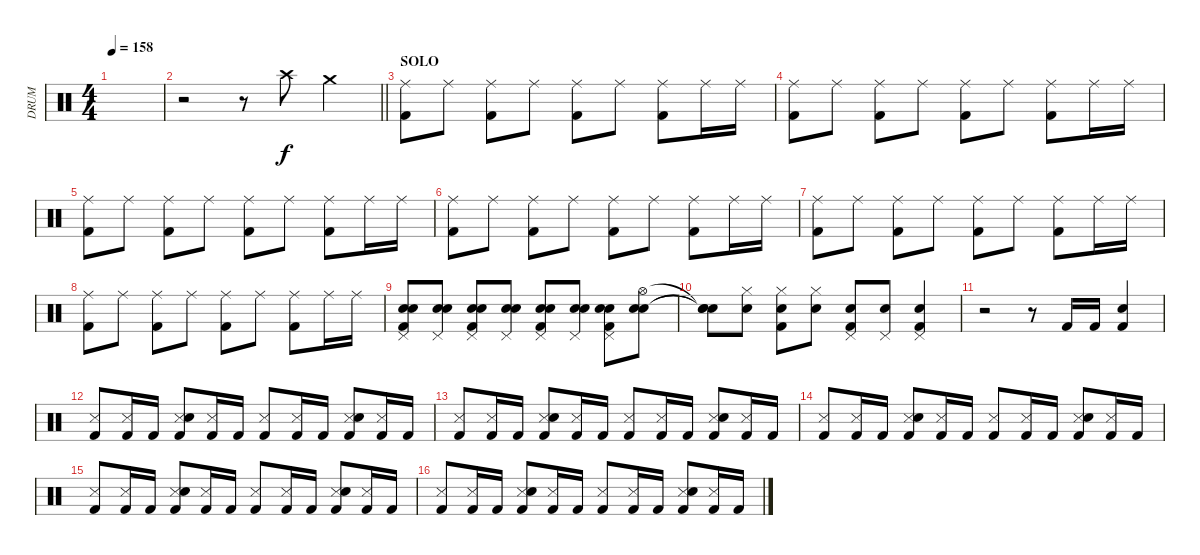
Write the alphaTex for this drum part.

\track ("DRUM" "DRUM") {instrument percussion}
\staff {score}
\articulation defaults
\ts (4 4)
\tempo 158
\clef neutral
\ks c
|
\barLineRight lightlight
r.2 r.8 "Crash high (hit)".8 "Crash medium (hit)".4 |
\section ("" "SOLO")
("Ride (middle)" "Kick (hit) 2").8 "Ride (middle)".8 ("Ride (middle)" "Kick (hit) 2").8 "Ride (middle)".8 ("Ride (middle)" "Kick (hit) 2").8 "Ride (middle)".8 ("Ride (middle)" "Kick (hit) 2").8 "Ride (middle)".16 "Ride (middle)".16 |
("Ride (middle)" "Kick (hit) 2").8 "Ride (middle)".8 ("Ride (middle)" "Kick (hit) 2").8 "Ride (middle)".8 ("Ride (middle)" "Kick (hit) 2").8 "Ride (middle)".8 ("Ride (middle)" "Kick (hit) 2").8 "Ride (middle)".16 "Ride (middle)".16 |
("Ride (middle)" "Kick (hit) 2").8 "Ride (middle)".8 ("Ride (middle)" "Kick (hit) 2").8 "Ride (middle)".8 ("Ride (middle)" "Kick (hit) 2").8 "Ride (middle)".8 ("Ride (middle)" "Kick (hit) 2").8 "Ride (middle)".16 "Ride (middle)".16 |
("Ride (middle)" "Kick (hit) 2").8 "Ride (middle)".8 ("Ride (middle)" "Kick (hit) 2").8 "Ride (middle)".8 ("Ride (middle)" "Kick (hit) 2").8 "Ride (middle)".8 ("Ride (middle)" "Kick (hit) 2").8 "Ride (middle)".16 "Ride (middle)".16 |
("Ride (middle)" "Kick (hit) 2").8 "Ride (middle)".8 ("Ride (middle)" "Kick (hit) 2").8 "Ride (middle)".8 ("Ride (middle)" "Kick (hit) 2").8 "Ride (middle)".8 ("Ride (middle)" "Kick (hit) 2").8 "Ride (middle)".16 "Ride (middle)".16 |
("Ride (middle)" "Kick (hit) 2").8 "Ride (middle)".8 ("Ride (middle)" "Kick (hit) 2").8 "Ride (middle)".8 ("Ride (middle)" "Kick (hit) 2").8 "Ride (middle)".8 ("Ride (middle)" "Kick (hit) 2").8 "Ride (middle)".16 "Ride (middle)".16 |
("Pedal Hi-Hat (hit)" "Snare (hit) 2" "Electric Snare (hit)" "Kick (hit) 2").8 ("Pedal Hi-Hat (hit)" "Snare (hit) 2" "Electric Snare (hit)").8 ("Pedal Hi-Hat (hit)" "Snare (hit) 2" "Electric Snare (hit)" "Kick (hit) 2").8 ("Pedal Hi-Hat (hit)" "Snare (hit) 2" "Electric Snare (hit)").8 ("Pedal Hi-Hat (hit)" "Snare (hit) 2" "Electric Snare (hit)" "Kick (hit) 2").8 ("Pedal Hi-Hat (hit)" "Snare (hit) 2" "Electric Snare (hit)").8 ("Pedal Hi-Hat (hit)" "Snare (hit) 2" "Electric Snare (hit)" "Kick (hit) 2").8 ("Hi-Hat (open)" "Snare (hit) 2" "Electric Snare (hit)").8 |
("Snare (hit)"{t} "Snare (hit)"{t} "Snare (hit) 2"{t}).8 ("Hi-Hat (closed)" "Snare (hit) 2").8 ("Hi-Hat (closed)" "Snare (hit) 2" "Kick (hit) 2").8 ("Hi-Hat (closed)" "Snare (hit) 2").8 ("Pedal Hi-Hat (hit)" "Snare (hit) 2" "Kick (hit) 2").8 ("Pedal Hi-Hat (hit)" "Snare (hit) 2").8 ("Pedal Hi-Hat (hit)" "Snare (hit) 2" "Kick (hit) 2").4 |
r.2 r.8 "Kick (hit) 2".16 "Kick (hit) 2".16 ("Snare (hit) 2" "Kick (hit) 2").4 |
("Metronome (hit)" "Kick (hit) 2").8 ("Metronome (hit)" "Kick (hit) 2").16 "Kick (hit) 2".16 ("Metronome (hit)" "Snare (hit) 2" "Kick (hit) 2").8 ("Metronome (hit)" "Kick (hit) 2").16 "Kick (hit) 2".16 ("Metronome (hit)" "Kick (hit) 2").8 ("Metronome (hit)" "Kick (hit) 2").16 "Kick (hit) 2".16 ("Metronome (hit)" "Snare (hit) 2" "Kick (hit) 2").8 ("Metronome (hit)" "Kick (hit) 2").16 "Kick (hit) 2".16 |
("Metronome (hit)" "Kick (hit) 2").8 ("Metronome (hit)" "Kick (hit) 2").16 "Kick (hit) 2".16 ("Metronome (hit)" "Snare (hit) 2" "Kick (hit) 2").8 ("Metronome (hit)" "Kick (hit) 2").16 "Kick (hit) 2".16 ("Metronome (hit)" "Kick (hit) 2").8 ("Metronome (hit)" "Kick (hit) 2").16 "Kick (hit) 2".16 ("Metronome (hit)" "Snare (hit) 2" "Kick (hit) 2").8 ("Metronome (hit)" "Kick (hit) 2").16 "Kick (hit) 2".16 |
("Metronome (hit)" "Kick (hit) 2").8 ("Metronome (hit)" "Kick (hit) 2").16 "Kick (hit) 2".16 ("Metronome (hit)" "Snare (hit) 2" "Kick (hit) 2").8 ("Metronome (hit)" "Kick (hit) 2").16 "Kick (hit) 2".16 ("Metronome (hit)" "Kick (hit) 2").8 ("Metronome (hit)" "Kick (hit) 2").16 "Kick (hit) 2".16 ("Metronome (hit)" "Snare (hit) 2" "Kick (hit) 2").8 ("Metronome (hit)" "Kick (hit) 2").16 "Kick (hit) 2".16 |
("Metronome (hit)" "Kick (hit) 2").8 ("Metronome (hit)" "Kick (hit) 2").16 "Kick (hit) 2".16 ("Metronome (hit)" "Snare (hit) 2" "Kick (hit) 2").8 ("Metronome (hit)" "Kick (hit) 2").16 "Kick (hit) 2".16 ("Metronome (hit)" "Kick (hit) 2").8 ("Metronome (hit)" "Kick (hit) 2").16 "Kick (hit) 2".16 ("Metronome (hit)" "Snare (hit) 2" "Kick (hit) 2").8 ("Metronome (hit)" "Kick (hit) 2").16 "Kick (hit) 2".16 |
("Metronome (hit)" "Kick (hit) 2").8 ("Metronome (hit)" "Kick (hit) 2").16 "Kick (hit) 2".16 ("Metronome (hit)" "Snare (hit) 2" "Kick (hit) 2").8 ("Metronome (hit)" "Kick (hit) 2").16 "Kick (hit) 2".16 ("Metronome (hit)" "Kick (hit) 2").8 ("Metronome (hit)" "Kick (hit) 2").16 "Kick (hit) 2".16 ("Metronome (hit)" "Snare (hit) 2" "Kick (hit) 2").8 ("Metronome (hit)" "Kick (hit) 2").16 "Kick (hit) 2".16
